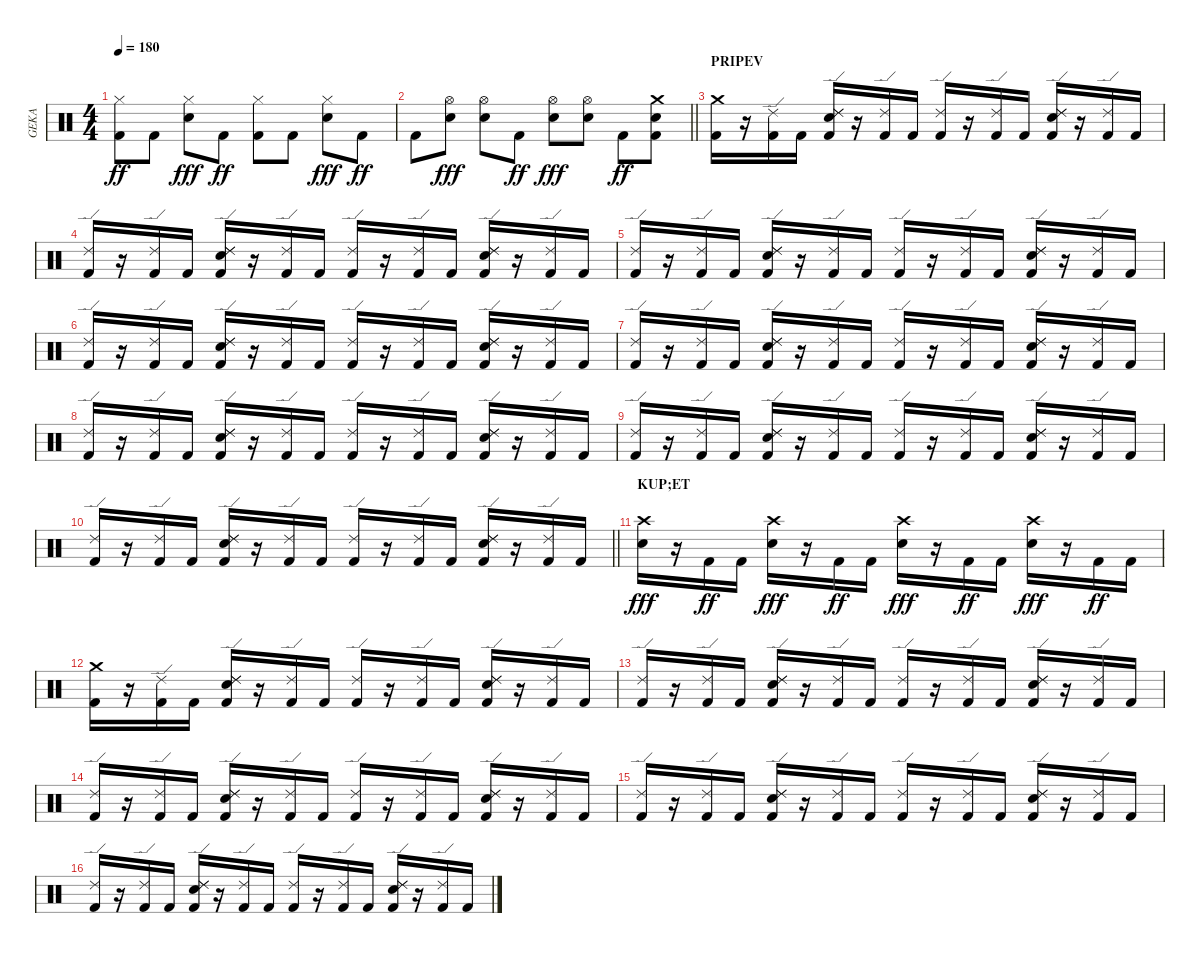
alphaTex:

\track ("GEKA" "GEKA") {instrument percussion}
\staff {score}
\articulation defaults
\ts (4 4)
\tempo 180
\clef neutral
\ks c
("Hi-Hat (closed)" "Kick (hit) 2").8{dy ff} "Kick (hit) 2".8 ("Hi-Hat (closed)" "Snare (hit) 2").8{dy fff} "Kick (hit) 2".8{dy ff} ("Hi-Hat (closed)" "Kick (hit) 2").8 "Kick (hit) 2".8 ("Hi-Hat (closed)" "Snare (hit) 2").8{dy fff} "Kick (hit) 2".8{dy ff} |
\barLineRight lightlight "Kick (hit) 2".8
("Hi-Hat (open)" "Snare (hit) 2").8{dy fff} ("Hi-Hat (open)" "Snare (hit) 2").8 "Kick (hit) 2".8{dy ff} ("Hi-Hat (open)" "Snare (hit) 2").8{dy fff} ("Hi-Hat (open)" "Snare (hit) 2").8 "Kick (hit) 2".8{dy ff} ("Crash medium (hit)" "Snare (hit) 2" "Kick (hit) 2").8 |
\section ("" "PRIPEV")
("Crash medium (hit)" "Kick (hit) 2").16 r.16 ("Ride (edge) 2" "Kick (hit) 2").16 "Kick (hit) 2".16 ("Ride (edge) 2" "Snare (hit) 2" "Kick (hit) 2" "Ride (edge) 2").16 r.16 ("Ride (edge) 2" "Kick (hit) 2").16 "Kick (hit) 2".16 ("Ride (edge) 2" "Kick (hit) 2").16 r.16 ("Ride (edge) 2" "Kick (hit) 2").16 "Kick (hit) 2".16 ("Ride (edge) 2" "Snare (hit) 2" "Kick (hit) 2" "Ride (edge) 2").16 r.16 ("Ride (edge) 2" "Kick (hit) 2").16 "Kick (hit) 2".16 |
("Ride (edge) 2" "Kick (hit) 2").16 r.16 ("Ride (edge) 2" "Kick (hit) 2").16 "Kick (hit) 2".16 ("Ride (edge) 2" "Snare (hit) 2" "Kick (hit) 2" "Ride (edge) 2").16 r.16 ("Ride (edge) 2" "Kick (hit) 2").16 "Kick (hit) 2".16 ("Ride (edge) 2" "Kick (hit) 2").16 r.16 ("Ride (edge) 2" "Kick (hit) 2").16 "Kick (hit) 2".16 ("Ride (edge) 2" "Snare (hit) 2" "Kick (hit) 2" "Ride (edge) 2").16 r.16 ("Ride (edge) 2" "Kick (hit) 2").16 "Kick (hit) 2".16 |
("Ride (edge) 2" "Kick (hit) 2").16 r.16 ("Ride (edge) 2" "Kick (hit) 2").16 "Kick (hit) 2".16 ("Ride (edge) 2" "Snare (hit) 2" "Kick (hit) 2" "Ride (edge) 2").16 r.16 ("Ride (edge) 2" "Kick (hit) 2").16 "Kick (hit) 2".16 ("Ride (edge) 2" "Kick (hit) 2").16 r.16 ("Ride (edge) 2" "Kick (hit) 2").16 "Kick (hit) 2".16 ("Ride (edge) 2" "Snare (hit) 2" "Kick (hit) 2" "Ride (edge) 2").16 r.16 ("Ride (edge) 2" "Kick (hit) 2").16 "Kick (hit) 2".16 |
("Ride (edge) 2" "Kick (hit) 2").16 r.16 ("Ride (edge) 2" "Kick (hit) 2").16 "Kick (hit) 2".16 ("Ride (edge) 2" "Snare (hit) 2" "Kick (hit) 2" "Ride (edge) 2").16 r.16 ("Ride (edge) 2" "Kick (hit) 2").16 "Kick (hit) 2".16 ("Ride (edge) 2" "Kick (hit) 2").16 r.16 ("Ride (edge) 2" "Kick (hit) 2").16 "Kick (hit) 2".16 ("Ride (edge) 2" "Snare (hit) 2" "Kick (hit) 2" "Ride (edge) 2").16 r.16 ("Ride (edge) 2" "Kick (hit) 2").16 "Kick (hit) 2".16 |
("Ride (edge) 2" "Kick (hit) 2").16 r.16 ("Ride (edge) 2" "Kick (hit) 2").16 "Kick (hit) 2".16 ("Ride (edge) 2" "Snare (hit) 2" "Kick (hit) 2" "Ride (edge) 2").16 r.16 ("Ride (edge) 2" "Kick (hit) 2").16 "Kick (hit) 2".16 ("Ride (edge) 2" "Kick (hit) 2").16 r.16 ("Ride (edge) 2" "Kick (hit) 2").16 "Kick (hit) 2".16 ("Ride (edge) 2" "Snare (hit) 2" "Kick (hit) 2" "Ride (edge) 2").16 r.16 ("Ride (edge) 2" "Kick (hit) 2").16 "Kick (hit) 2".16 |
("Ride (edge) 2" "Kick (hit) 2").16 r.16 ("Ride (edge) 2" "Kick (hit) 2").16 "Kick (hit) 2".16 ("Ride (edge) 2" "Snare (hit) 2" "Kick (hit) 2" "Ride (edge) 2").16 r.16 ("Ride (edge) 2" "Kick (hit) 2").16 "Kick (hit) 2".16 ("Ride (edge) 2" "Kick (hit) 2").16 r.16 ("Ride (edge) 2" "Kick (hit) 2").16 "Kick (hit) 2".16 ("Ride (edge) 2" "Snare (hit) 2" "Kick (hit) 2" "Ride (edge) 2").16 r.16 ("Ride (edge) 2" "Kick (hit) 2").16 "Kick (hit) 2".16 |
("Ride (edge) 2" "Kick (hit) 2").16 r.16 ("Ride (edge) 2" "Kick (hit) 2").16 "Kick (hit) 2".16 ("Ride (edge) 2" "Snare (hit) 2" "Kick (hit) 2" "Ride (edge) 2").16 r.16 ("Ride (edge) 2" "Kick (hit) 2").16 "Kick (hit) 2".16 ("Ride (edge) 2" "Kick (hit) 2").16 r.16 ("Ride (edge) 2" "Kick (hit) 2").16 "Kick (hit) 2".16 ("Ride (edge) 2" "Snare (hit) 2" "Kick (hit) 2" "Ride (edge) 2").16 r.16 ("Ride (edge) 2" "Kick (hit) 2").16 "Kick (hit) 2".16 |
\barLineRight lightlight
("Ride (edge) 2" "Kick (hit) 2").16 r.16 ("Ride (edge) 2" "Kick (hit) 2").16 "Kick (hit) 2".16 ("Ride (edge) 2" "Snare (hit) 2" "Kick (hit) 2" "Ride (edge) 2").16 r.16 ("Ride (edge) 2" "Kick (hit) 2").16 "Kick (hit) 2".16 ("Ride (edge) 2" "Kick (hit) 2").16 r.16 ("Ride (edge) 2" "Kick (hit) 2").16 "Kick (hit) 2".16 ("Ride (edge) 2" "Snare (hit) 2" "Kick (hit) 2" "Ride (edge) 2").16 r.16 ("Ride (edge) 2" "Kick (hit) 2").16 "Kick (hit) 2".16 |
\section ("" "KUP;ET")
("Crash high (hit)" "Snare (hit) 2").16{dy fff} r.16 "Kick (hit) 2".16{dy ff} "Kick (hit) 2".16 ("Crash high (hit)" "Snare (hit) 2").16{dy fff} r.16 "Kick (hit) 2".16{dy ff} "Kick (hit) 2".16 ("Crash high (hit)" "Snare (hit) 2").16{dy fff} r.16 "Kick (hit) 2".16{dy ff} "Kick (hit) 2".16 ("Crash high (hit)" "Snare (hit) 2").16{dy fff} r.16 "Kick (hit) 2".16{dy ff} "Kick (hit) 2".16 |
("Crash medium (hit)" "Kick (hit) 2").16 r.16 ("Ride (edge) 2" "Kick (hit) 2").16 "Kick (hit) 2".16 ("Ride (edge) 2" "Snare (hit) 2" "Kick (hit) 2" "Ride (edge) 2").16 r.16 ("Ride (edge) 2" "Kick (hit) 2").16 "Kick (hit) 2".16 ("Ride (edge) 2" "Kick (hit) 2").16 r.16 ("Ride (edge) 2" "Kick (hit) 2").16 "Kick (hit) 2".16 ("Ride (edge) 2" "Snare (hit) 2" "Kick (hit) 2" "Ride (edge) 2").16 r.16 ("Ride (edge) 2" "Kick (hit) 2").16 "Kick (hit) 2".16 |
("Ride (edge) 2" "Kick (hit) 2").16 r.16 ("Ride (edge) 2" "Kick (hit) 2").16 "Kick (hit) 2".16 ("Ride (edge) 2" "Snare (hit) 2" "Kick (hit) 2" "Ride (edge) 2").16 r.16 ("Ride (edge) 2" "Kick (hit) 2").16 "Kick (hit) 2".16 ("Ride (edge) 2" "Kick (hit) 2").16 r.16 ("Ride (edge) 2" "Kick (hit) 2").16 "Kick (hit) 2".16 ("Ride (edge) 2" "Snare (hit) 2" "Kick (hit) 2" "Ride (edge) 2").16 r.16 ("Ride (edge) 2" "Kick (hit) 2").16 "Kick (hit) 2".16 |
("Ride (edge) 2" "Kick (hit) 2").16 r.16 ("Ride (edge) 2" "Kick (hit) 2").16 "Kick (hit) 2".16 ("Ride (edge) 2" "Snare (hit) 2" "Kick (hit) 2" "Ride (edge) 2").16 r.16 ("Ride (edge) 2" "Kick (hit) 2").16 "Kick (hit) 2".16 ("Ride (edge) 2" "Kick (hit) 2").16 r.16 ("Ride (edge) 2" "Kick (hit) 2").16 "Kick (hit) 2".16 ("Ride (edge) 2" "Snare (hit) 2" "Kick (hit) 2" "Ride (edge) 2").16 r.16 ("Ride (edge) 2" "Kick (hit) 2").16 "Kick (hit) 2".16 |
("Ride (edge) 2" "Kick (hit) 2").16 r.16 ("Ride (edge) 2" "Kick (hit) 2").16 "Kick (hit) 2".16 ("Ride (edge) 2" "Snare (hit) 2" "Kick (hit) 2" "Ride (edge) 2").16 r.16 ("Ride (edge) 2" "Kick (hit) 2").16 "Kick (hit) 2".16 ("Ride (edge) 2" "Kick (hit) 2").16 r.16 ("Ride (edge) 2" "Kick (hit) 2").16 "Kick (hit) 2".16 ("Ride (edge) 2" "Snare (hit) 2" "Kick (hit) 2" "Ride (edge) 2").16 r.16 ("Ride (edge) 2" "Kick (hit) 2").16 "Kick (hit) 2".16 |
("Ride (edge) 2" "Kick (hit) 2").16 r.16 ("Ride (edge) 2" "Kick (hit) 2").16 "Kick (hit) 2".16 ("Ride (edge) 2" "Snare (hit) 2" "Kick (hit) 2" "Ride (edge) 2").16 r.16 ("Ride (edge) 2" "Kick (hit) 2").16 "Kick (hit) 2".16 ("Ride (edge) 2" "Kick (hit) 2").16 r.16 ("Ride (edge) 2" "Kick (hit) 2").16 "Kick (hit) 2".16 ("Ride (edge) 2" "Snare (hit) 2" "Kick (hit) 2" "Ride (edge) 2").16 r.16 ("Ride (edge) 2" "Kick (hit) 2").16 "Kick (hit) 2".16
